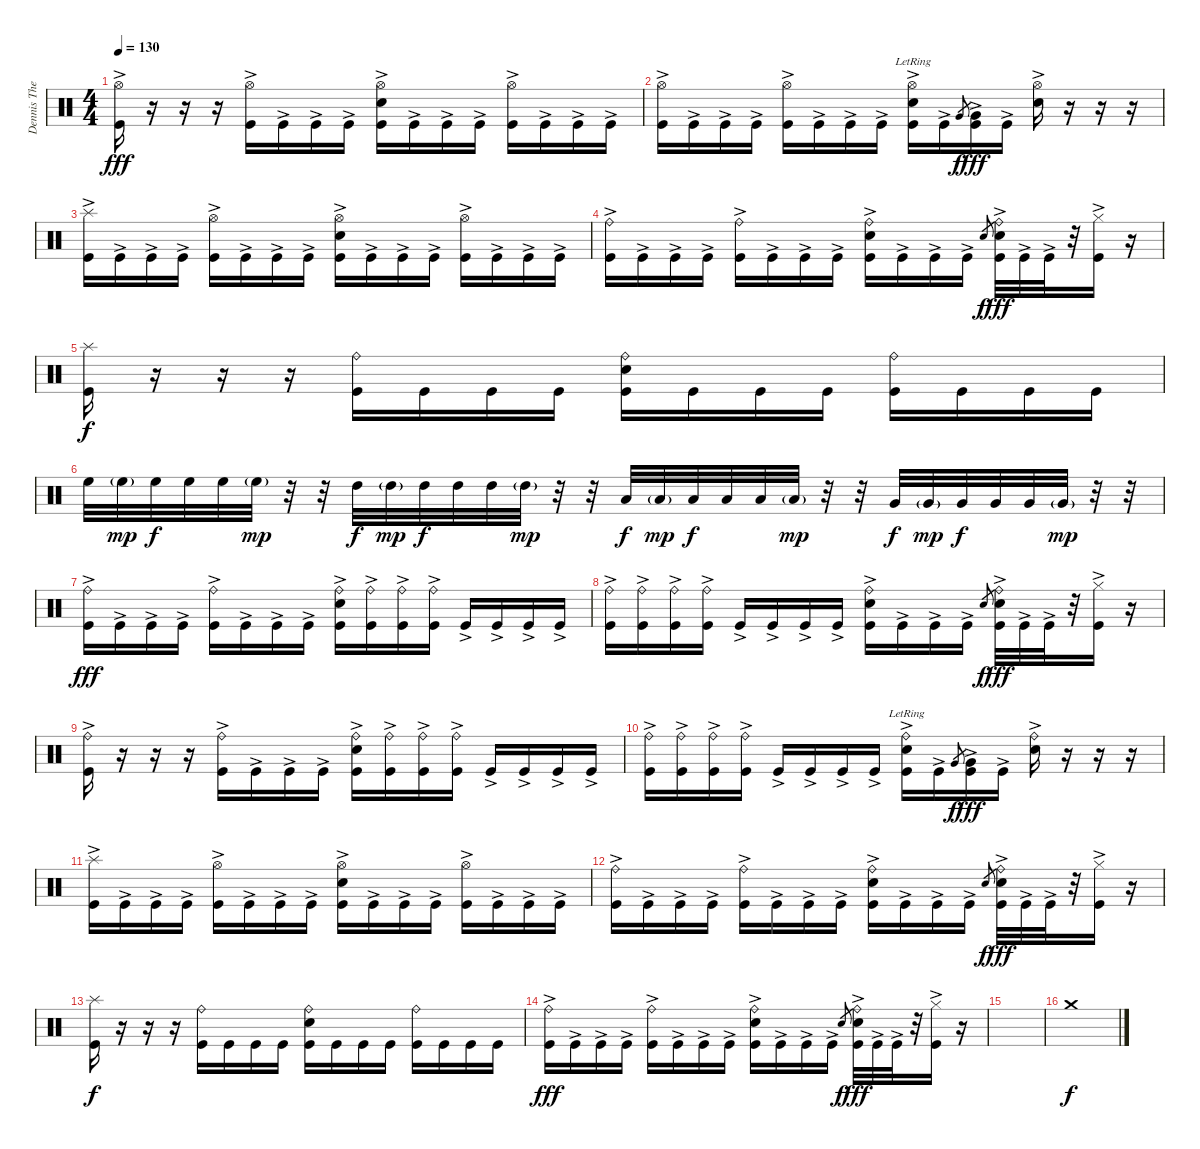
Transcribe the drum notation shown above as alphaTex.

\track ("Dennis The Menace" "Dennis The") {instrument percussion}
\staff {score}
\articulation defaults
\ts (4 4)
\tempo 130
\clef neutral
\ks c
("Hi-Hat (open)" "Kick (hit)"{ac}).16{dy fff} r.16 r.16 r.16 ("Hi-Hat (open)" "Kick (hit)"{ac}).16 "Kick (hit)"{ac}.16 "Kick (hit)"{ac}.16 "Kick (hit)"{ac}.16 ("Hi-Hat (open)" "Electric Snare (hit)" "Kick (hit)"{ac}).16 "Kick (hit)"{ac}.16 "Kick (hit)"{ac}.16 "Kick (hit)"{ac}.16 ("Hi-Hat (open)" "Kick (hit)"{ac}).16 "Kick (hit)"{ac}.16 "Kick (hit)"{ac}.16 "Kick (hit)"{ac}.16 |
("Hi-Hat (open)" "Kick (hit)"{ac}).16 "Kick (hit)"{ac}.16 "Kick (hit)"{ac}.16 "Kick (hit)"{ac}.16 ("Hi-Hat (open)" "Kick (hit)"{ac}).16 "Kick (hit)"{ac}.16 "Kick (hit)"{ac}.16 "Kick (hit)"{ac}.16 ("Hi-Hat (open)" "Electric Snare (hit)"{ac lr} "Kick (hit)"{ac}).16 "Kick (hit)"{ac}.16 "Very Low Tom (hit)".8{gr dy f} ("Very Low Tom (hit)" "Kick (hit)"{ac}).16{dy fff} "Kick (hit)"{ac}.16 ("Hi-Hat (open)" "Electric Snare (hit)"{ac}).16 r.16 r.16 r.16 |
("Splash (hit)" "Kick (hit)"{ac}).16 "Kick (hit)"{ac}.16 "Kick (hit)"{ac}.16 "Kick (hit)"{ac}.16 ("Hi-Hat (open)" "Kick (hit)"{ac}).16 "Kick (hit)"{ac}.16 "Kick (hit)"{ac}.16 "Kick (hit)"{ac}.16 ("Hi-Hat (open)" "Electric Snare (hit)" "Kick (hit)"{ac}).16 "Kick (hit)"{ac}.16 "Kick (hit)"{ac}.16 "Kick (hit)"{ac}.16 ("Hi-Hat (open)" "Kick (hit)"{ac}).16 "Kick (hit)"{ac}.16 "Kick (hit)"{ac}.16 "Kick (hit)"{ac}.16 |
("Ride (bell)" "Kick (hit)"{ac}).16 "Kick (hit)"{ac}.16 "Kick (hit)"{ac}.16 "Kick (hit)"{ac}.16 ("Ride (bell)" "Kick (hit)"{ac}).16 "Kick (hit)"{ac}.16 "Kick (hit)"{ac}.16 "Kick (hit)"{ac}.16 ("Ride (bell)" "Electric Snare (hit)"{ac} "Kick (hit)"{ac}).16 "Kick (hit)"{ac}.16 "Kick (hit)"{ac}.16 "Kick (hit)"{ac}.16 "Electric Snare (hit)".8{gr dy f} ("Ride (bell)" "Electric Snare (hit)"{ac} "Kick (hit)"{ac}).32{dy fff} "Kick (hit)"{ac}.32 "Kick (hit)"{ac}.32 r.32 ("Hi-Hat (closed)" "Kick (hit)"{ac}).16 r.16 |
("Splash (hit)" "Kick (hit)").16{dy f} r.16 r.16 r.16 ("Ride (bell)" "Kick (hit)").16 "Kick (hit)".16 "Kick (hit)".16 "Kick (hit)".16 ("Ride (bell)" "Electric Snare (hit)" "Kick (hit)").16 "Kick (hit)".16 "Kick (hit)".16 "Kick (hit)".16 ("Ride (bell)" "Kick (hit)").16 "Kick (hit)".16 "Kick (hit)".16 "Kick (hit)".16 |
"High Floor Tom (hit)".32 "High Floor Tom (hit)"{g}.32{dy mp} "High Floor Tom (hit)".32{dy f} "High Floor Tom (hit)".32 "High Floor Tom (hit)".32 "High Floor Tom (hit)"{g}.32{dy mp} r.32 r.32 "High Tom (hit)".32{dy f} "High Tom (hit)"{g}.32{dy mp} "High Tom (hit)".32{dy f} "High Tom (hit)".32 "High Tom (hit)".32 "High Tom (hit)"{g}.32{dy mp} r.32 r.32 "Low Tom (hit)".32{dy f} "Low Tom (hit)"{g}.32{dy mp} "Low Tom (hit)".32{dy f} "Low Tom (hit)".32 "Low Tom (hit)".32 "Low Tom (hit)"{g}.32{dy mp} r.32 r.32 "Very Low Tom (hit)".32{dy f} "Very Low Tom (hit)"{g}.32{dy mp} "Very Low Tom (hit)".32{dy f} "Very Low Tom (hit)".32 "Very Low Tom (hit)".32 "Very Low Tom (hit)"{g}.32{dy mp} r.32 r.32 |
("Ride (bell)" "Kick (hit)"{ac}).16{dy fff} "Kick (hit)"{ac}.16 "Kick (hit)"{ac}.16 "Kick (hit)"{ac}.16 ("Ride (bell)" "Kick (hit)"{ac}).16 "Kick (hit)"{ac}.16 "Kick (hit)"{ac}.16 "Kick (hit)"{ac}.16 ("Ride (bell)" "Electric Snare (hit)" "Kick (hit)"{ac}).16 ("Ride (bell)" "Kick (hit)"{ac}).16 ("Ride (bell)" "Kick (hit)"{ac}).16 ("Ride (bell)" "Kick (hit)"{ac}).16 "Kick (hit)"{ac}.16 "Kick (hit)"{ac}.16 "Kick (hit)"{ac}.16 "Kick (hit)"{ac}.16 |
("Ride (bell)" "Kick (hit)"{ac}).16 ("Ride (bell)" "Kick (hit)"{ac}).16 ("Ride (bell)" "Kick (hit)"{ac}).16 ("Ride (bell)" "Kick (hit)"{ac}).16 "Kick (hit)"{ac}.16 "Kick (hit)"{ac}.16 "Kick (hit)"{ac}.16 "Kick (hit)"{ac}.16 ("Ride (bell)" "Electric Snare (hit)"{ac} "Kick (hit)"{ac}).16 "Kick (hit)"{ac}.16 "Kick (hit)"{ac}.16 "Kick (hit)"{ac}.16 "Electric Snare (hit)".8{gr dy f} ("Ride (bell)" "Electric Snare (hit)"{ac} "Kick (hit)"{ac}).32{dy fff} "Kick (hit)"{ac}.32 "Kick (hit)"{ac}.32 r.32 ("Hi-Hat (closed)" "Kick (hit)"{ac}).16 r.16 |
("Ride (bell)" "Kick (hit)"{ac}).16 r.16 r.16 r.16 ("Ride (bell)" "Kick (hit)"{ac}).16 "Kick (hit)"{ac}.16 "Kick (hit)"{ac}.16 "Kick (hit)"{ac}.16 ("Ride (bell)" "Electric Snare (hit)" "Kick (hit)"{ac}).16 ("Ride (bell)" "Kick (hit)"{ac}).16 ("Ride (bell)" "Kick (hit)"{ac}).16 ("Ride (bell)" "Kick (hit)"{ac}).16 "Kick (hit)"{ac}.16 "Kick (hit)"{ac}.16 "Kick (hit)"{ac}.16 "Kick (hit)"{ac}.16 |
("Ride (bell)" "Kick (hit)"{ac}).16 ("Ride (bell)" "Kick (hit)"{ac}).16 ("Ride (bell)" "Kick (hit)"{ac}).16 ("Ride (bell)" "Kick (hit)"{ac}).16 "Kick (hit)"{ac}.16 "Kick (hit)"{ac}.16 "Kick (hit)"{ac}.16 "Kick (hit)"{ac}.16 ("Ride (bell)" "Electric Snare (hit)"{ac lr} "Kick (hit)"{ac}).16 "Kick (hit)"{ac}.16 "Very Low Tom (hit)".8{gr dy f} ("Very Low Tom (hit)" "Kick (hit)"{ac}).16{dy fff} "Kick (hit)"{ac}.16 ("Ride (bell)" "Electric Snare (hit)"{ac}).16 r.16 r.16 r.16 |
("Splash (hit)" "Kick (hit)"{ac}).16 "Kick (hit)"{ac}.16 "Kick (hit)"{ac}.16 "Kick (hit)"{ac}.16 ("Hi-Hat (open)" "Kick (hit)"{ac}).16 "Kick (hit)"{ac}.16 "Kick (hit)"{ac}.16 "Kick (hit)"{ac}.16 ("Hi-Hat (open)" "Electric Snare (hit)" "Kick (hit)"{ac}).16 "Kick (hit)"{ac}.16 "Kick (hit)"{ac}.16 "Kick (hit)"{ac}.16 ("Hi-Hat (open)" "Kick (hit)"{ac}).16 "Kick (hit)"{ac}.16 "Kick (hit)"{ac}.16 "Kick (hit)"{ac}.16 |
("Ride (bell)" "Kick (hit)"{ac}).16 "Kick (hit)"{ac}.16 "Kick (hit)"{ac}.16 "Kick (hit)"{ac}.16 ("Ride (bell)" "Kick (hit)"{ac}).16 "Kick (hit)"{ac}.16 "Kick (hit)"{ac}.16 "Kick (hit)"{ac}.16 ("Ride (bell)" "Electric Snare (hit)"{ac} "Kick (hit)"{ac}).16 "Kick (hit)"{ac}.16 "Kick (hit)"{ac}.16 "Kick (hit)"{ac}.16 "Electric Snare (hit)".8{gr dy f} ("Ride (bell)" "Electric Snare (hit)"{ac} "Kick (hit)"{ac}).32{dy fff} "Kick (hit)"{ac}.32 "Kick (hit)"{ac}.32 r.32 ("Hi-Hat (closed)" "Kick (hit)"{ac}).16 r.16 |
("Splash (hit)" "Kick (hit)").16{dy f} r.16 r.16 r.16 ("Ride (bell)" "Kick (hit)").16 "Kick (hit)".16 "Kick (hit)".16 "Kick (hit)".16 ("Ride (bell)" "Electric Snare (hit)" "Kick (hit)").16 "Kick (hit)".16 "Kick (hit)".16 "Kick (hit)".16 ("Ride (bell)" "Kick (hit)").16 "Kick (hit)".16 "Kick (hit)".16 "Kick (hit)".16 |
("Ride (bell)" "Kick (hit)"{ac}).16{dy fff} "Kick (hit)"{ac}.16 "Kick (hit)"{ac}.16 "Kick (hit)"{ac}.16 ("Ride (bell)" "Kick (hit)"{ac}).16 "Kick (hit)"{ac}.16 "Kick (hit)"{ac}.16 "Kick (hit)"{ac}.16 ("Ride (bell)" "Electric Snare (hit)"{ac} "Kick (hit)"{ac}).16 "Kick (hit)"{ac}.16 "Kick (hit)"{ac}.16 "Kick (hit)"{ac}.16 "Electric Snare (hit)".8{gr dy f} ("Ride (bell)" "Electric Snare (hit)"{ac} "Kick (hit)"{ac}).32{dy fff} "Kick (hit)"{ac}.32 "Kick (hit)"{ac}.32 r.32 ("Hi-Hat (closed)" "Kick (hit)"{ac}).16 r.16 |
|
"Crash medium (hit)".1{dy f}
